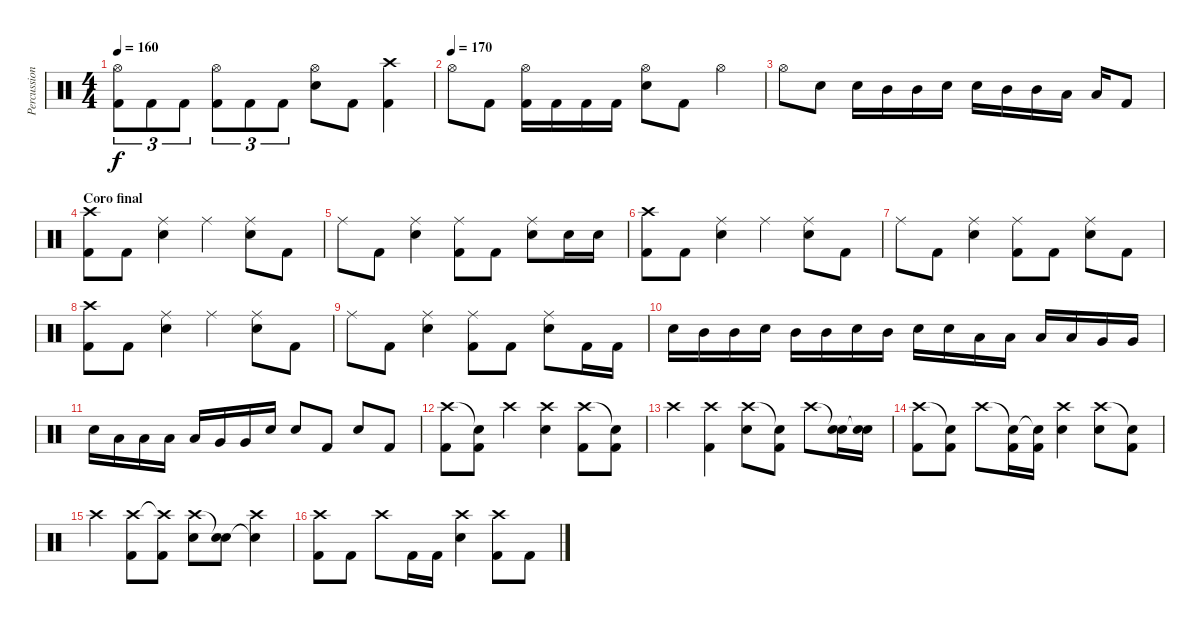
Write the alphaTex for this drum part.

\track ("Percussion" "Percussion") {instrument percussion}
\staff {score}
\articulation defaults
\ts (4 4)
\tempo 160
\clef neutral
\ks c
("Hi-Hat (open)" "Kick (hit) 2").8{tu (3 2) dy f} "Kick (hit) 2".8{tu (3 2)} "Kick (hit) 2".8{tu (3 2)} ("Hi-Hat (open)" "Kick (hit) 2").8{tu (3 2)} "Kick (hit) 2".8{tu (3 2)} "Kick (hit) 2".8{tu (3 2)} ("Hi-Hat (open)" "Electric Snare (hit)").8 "Kick (hit) 2".8 ("Crash high (hit)" "Kick (hit) 2").4 |
\tempo (170)
"Hi-Hat (open)".8 "Kick (hit) 2".8 ("Hi-Hat (open)" "Kick (hit) 2").16 "Kick (hit) 2".16 "Kick (hit) 2".16 "Kick (hit) 2".16 ("Hi-Hat (open)" "Electric Snare (hit)").8 "Kick (hit) 2".8 "Hi-Hat (open)".4 |
"Hi-Hat (open)".8 "Electric Snare (hit)".8 "Electric Snare (hit)".16 "Mid Tom (hit)".16 "Mid Tom (hit)".16 "Electric Snare (hit)".16 "Electric Snare (hit)".16 "Mid Tom (hit)".16 "Mid Tom (hit)".16 "Low Tom (hit)".16 "Low Tom (hit)".16 "Kick (hit) 2".8 |
\section ("" "Coro final")
("Crash high (hit)" "Kick (hit) 2").8 "Kick (hit) 2".8 ("Ride (middle)" "Electric Snare (hit)").4 "Ride (middle)".4 ("Ride (middle)" "Electric Snare (hit)").8 "Kick (hit) 2".8 |
"Ride (middle)".8 "Kick (hit) 2".8 ("Ride (middle)" "Electric Snare (hit)").4 ("Ride (middle)" "Kick (hit) 2").8 "Kick (hit) 2".8 ("Ride (middle)" "Electric Snare (hit)").8 "Electric Snare (hit)".16 "Electric Snare (hit)".16 |
("Crash high (hit)" "Kick (hit) 2").8 "Kick (hit) 2".8 ("Ride (middle)" "Electric Snare (hit)").4 "Ride (middle)".4 ("Ride (middle)" "Electric Snare (hit)").8 "Kick (hit) 2".8 |
"Ride (middle)".8 "Kick (hit) 2".8 ("Ride (middle)" "Electric Snare (hit)").4 ("Ride (middle)" "Kick (hit) 2").8 "Kick (hit) 2".8 ("Ride (middle)" "Electric Snare (hit)").8 "Kick (hit) 2".8 |
("Crash high (hit)" "Kick (hit) 2").8 "Kick (hit) 2".8 ("Ride (middle)" "Electric Snare (hit)").4 "Ride (middle)".4 ("Ride (middle)" "Electric Snare (hit)").8 "Kick (hit) 2".8 |
"Ride (middle)".8 "Kick (hit) 2".8 ("Ride (middle)" "Electric Snare (hit)").4 ("Ride (middle)" "Kick (hit) 2").8 "Kick (hit) 2".8 ("Ride (middle)" "Electric Snare (hit)").8 "Kick (hit) 2".16 "Kick (hit) 2".16 |
"Electric Snare (hit)".16 "Mid Tom (hit)".16 "Mid Tom (hit)".16 "Electric Snare (hit)".16 "Mid Tom (hit)".16 "Mid Tom (hit)".16 "Electric Snare (hit)".16 "Mid Tom (hit)".16 "Electric Snare (hit)".16 "Electric Snare (hit)".16 "Low Tom (hit)".16 "Low Tom (hit)".16 "Low Tom (hit)".16 "Low Tom (hit)".16 "Very Low Tom (hit)".16 "Very Low Tom (hit)".16 |
"Electric Snare (hit)".16 "Low Tom (hit)".16 "Low Tom (hit)".16 "Low Tom (hit)".16 "Low Tom (hit)".16 "Very Low Tom (hit)".16 "Very Low Tom (hit)".16 "Electric Snare (hit)".16 "Electric Snare (hit)".8 "Kick (hit) 2".8 "Electric Snare (hit)".8 "Kick (hit) 2".8 |
("Crash high (hit)" "Kick (hit) 2").8 ("Snare (hit)"{t} "Kick (hit) 2").8 "Crash high (hit)".4 ("Crash high (hit)" "Electric Snare (hit)").4 ("Crash high (hit)" "Kick (hit) 2").8 ("Snare (hit)"{t} "Kick (hit) 2").8 |
"Crash high (hit)".4 ("Crash high (hit)" "Kick (hit) 2").4 ("Crash high (hit)" "Electric Snare (hit)").8 ("Snare (hit)"{t} "Kick (hit) 2").8 "Crash high (hit)".8 ("Snare (hit)"{t} "Electric Snare (hit)").16 ("Snare (hit)"{t} "Electric Snare (hit)").16 |
("Crash high (hit)" "Kick (hit) 2").8 ("Snare (hit)"{t} "Kick (hit) 2").8 "Crash high (hit)".8 ("Snare (hit)"{t} "Kick (hit) 2").16 ("Snare (hit)"{t} "Kick (hit) 2").16 ("Crash high (hit)" "Electric Snare (hit)").4 ("Crash high (hit)" "Electric Snare (hit)").8 ("Snare (hit)"{t} "Kick (hit) 2").8 |
"Crash high (hit)".4 ("Crash high (hit)" "Kick (hit) 2").8 ("Crash high (hit)"{t} "Kick (hit) 2").8 ("Crash high (hit)" "Electric Snare (hit)").8 ("Snare (hit)"{t} "Electric Snare (hit)").8 ("Crash high (hit)" "Snare (hit)"{t}).4 |
("Crash high (hit)" "Kick (hit) 2").8 "Kick (hit) 2".8 "Crash high (hit)".8 "Kick (hit) 2".16 "Kick (hit) 2".16 ("Crash high (hit)" "Electric Snare (hit)").4 ("Crash high (hit)" "Kick (hit) 2").8 "Kick (hit) 2".8
